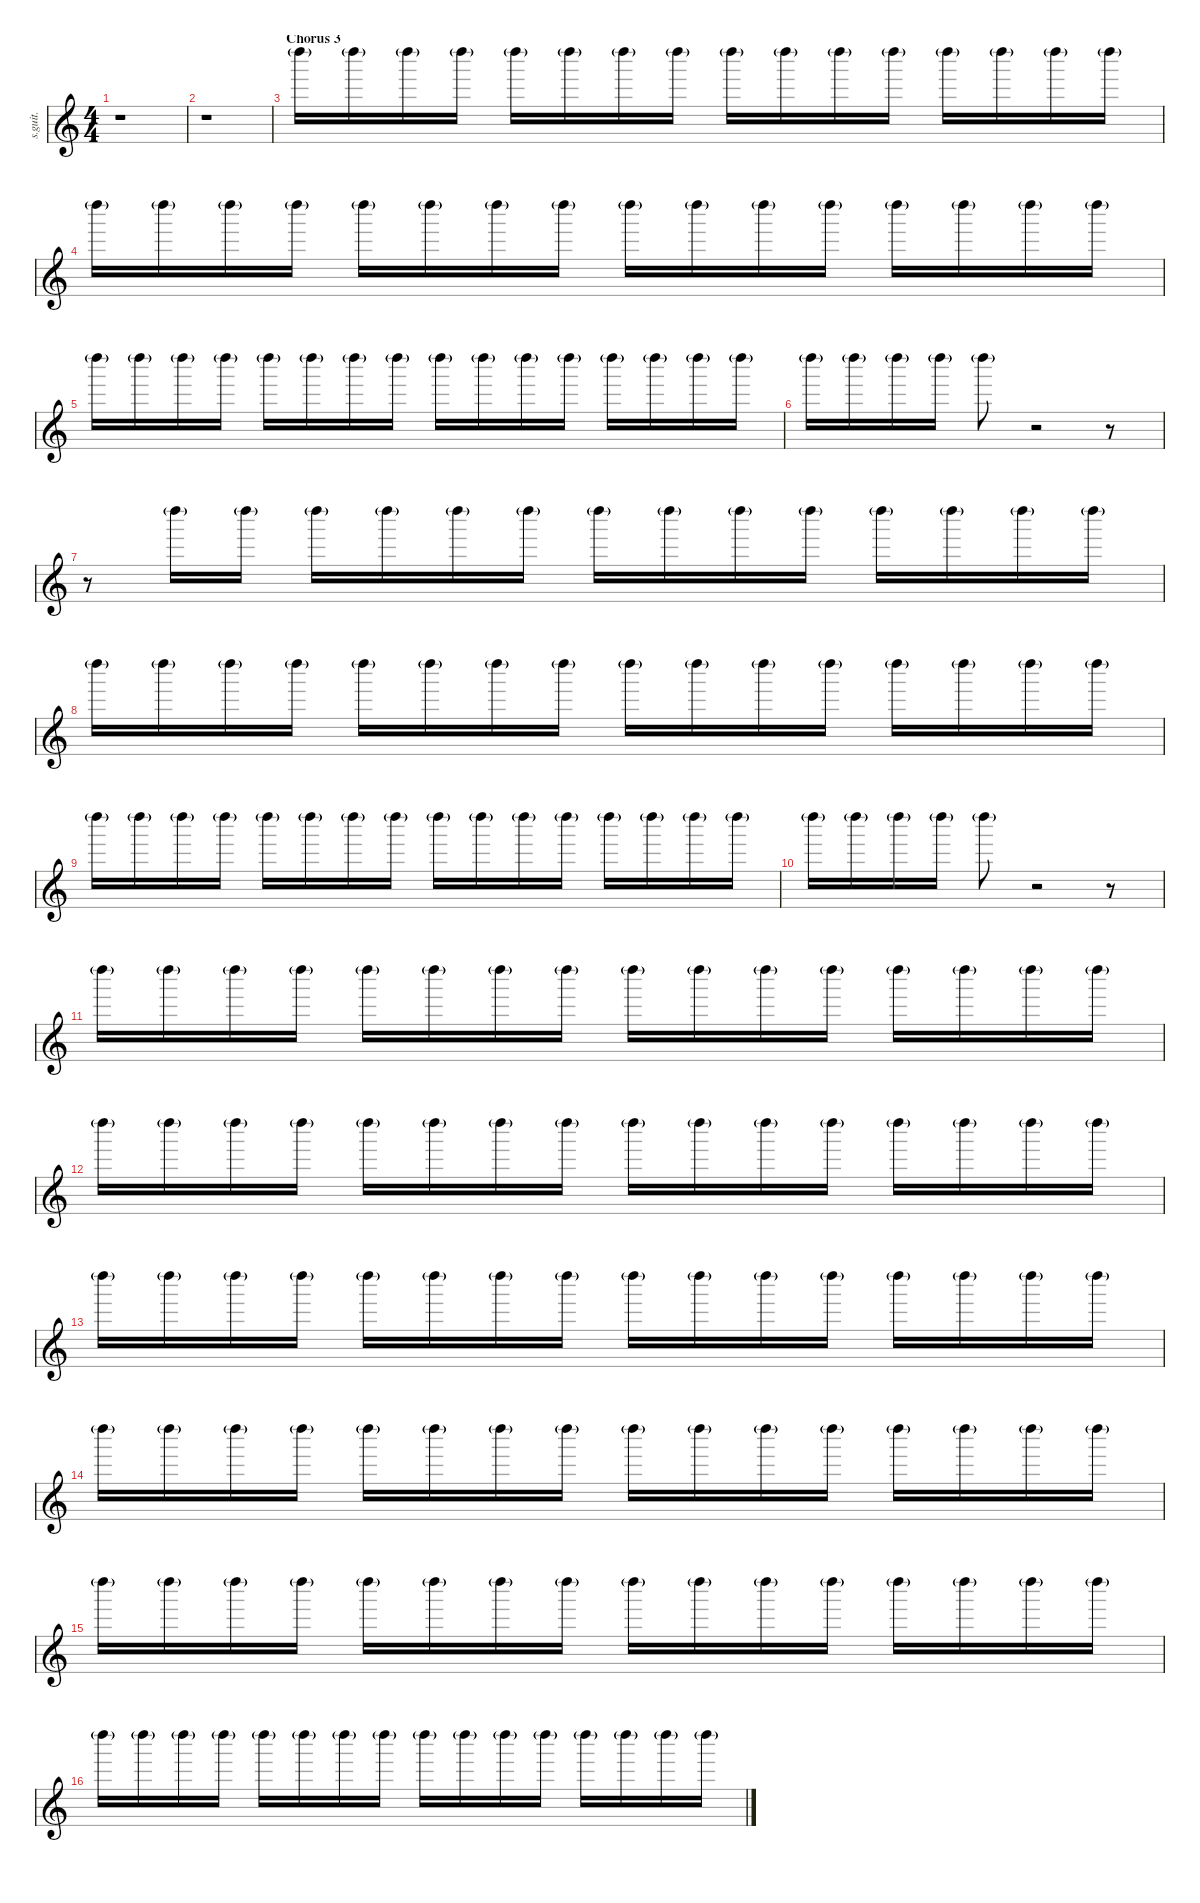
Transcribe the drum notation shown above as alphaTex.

\defaultSystemsLayout 4
\hideDynamics
\bracketExtendMode nobrackets
\track ("Shaker" "s.guit.") {instrument percussion}
\staff {score}
\articulation defaults
\ts (4 4)
\tempo (90 hide)
\clef g2
\ks c
r.1{dy p} |
\tempo (89 hide)
r.1 |
\section ("" "Chorus 3")
"Left Maraca (hit)"{g}.16{lyrics (0 "") lyrics (1 "") lyrics (2 "") lyrics (3 "") lyrics (4 "") dy mp} "Left Maraca (hit)"{g}.16{lyrics (0 "") lyrics (1 "") lyrics (2 "") lyrics (3 "") lyrics (4 "") dy p} "Left Maraca (hit)"{g}.16{lyrics (0 "") lyrics (1 "") lyrics (2 "") lyrics (3 "") lyrics (4 "")} "Left Maraca (hit)"{g}.16{lyrics (0 "") lyrics (1 "") lyrics (2 "") lyrics (3 "") lyrics (4 "")} "Left Maraca (hit)"{g}.16{lyrics (0 "") lyrics (1 "") lyrics (2 "") lyrics (3 "") lyrics (4 "") dy mp} "Left Maraca (hit)"{g}.16{lyrics (0 "") lyrics (1 "") lyrics (2 "") lyrics (3 "") lyrics (4 "") dy p} "Left Maraca (hit)"{g}.16{lyrics (0 "") lyrics (1 "") lyrics (2 "") lyrics (3 "") lyrics (4 "")} "Left Maraca (hit)"{g}.16{lyrics (0 "") lyrics (1 "") lyrics (2 "") lyrics (3 "") lyrics (4 "")} "Left Maraca (hit)"{g}.16{lyrics (0 "") lyrics (1 "") lyrics (2 "") lyrics (3 "") lyrics (4 "") dy mp} "Left Maraca (hit)"{g}.16{lyrics (0 "") lyrics (1 "") lyrics (2 "") lyrics (3 "") lyrics (4 "") dy p} "Left Maraca (hit)"{g}.16{lyrics (0 "") lyrics (1 "") lyrics (2 "") lyrics (3 "") lyrics (4 "")} "Left Maraca (hit)"{g}.16{lyrics (0 "") lyrics (1 "") lyrics (2 "") lyrics (3 "") lyrics (4 "")} "Left Maraca (hit)"{g}.16{lyrics (0 "") lyrics (1 "") lyrics (2 "") lyrics (3 "") lyrics (4 "") dy mp} "Left Maraca (hit)"{g}.16{lyrics (0 "") lyrics (1 "") lyrics (2 "") lyrics (3 "") lyrics (4 "") dy p} "Left Maraca (hit)"{g}.16{lyrics (0 "") lyrics (1 "") lyrics (2 "") lyrics (3 "") lyrics (4 "")} "Left Maraca (hit)"{g}.16{lyrics (0 "") lyrics (1 "") lyrics (2 "") lyrics (3 "") lyrics (4 "")} |
"Left Maraca (hit)"{g}.16{lyrics (0 "") lyrics (1 "") lyrics (2 "") lyrics (3 "") lyrics (4 "") dy mp} "Left Maraca (hit)"{g}.16{lyrics (0 "") lyrics (1 "") lyrics (2 "") lyrics (3 "") lyrics (4 "") dy p} "Left Maraca (hit)"{g}.16{lyrics (0 "") lyrics (1 "") lyrics (2 "") lyrics (3 "") lyrics (4 "")} "Left Maraca (hit)"{g}.16{lyrics (0 "") lyrics (1 "") lyrics (2 "") lyrics (3 "") lyrics (4 "")} "Left Maraca (hit)"{g}.16{lyrics (0 "") lyrics (1 "") lyrics (2 "") lyrics (3 "") lyrics (4 "") dy mp} "Left Maraca (hit)"{g}.16{lyrics (0 "") lyrics (1 "") lyrics (2 "") lyrics (3 "") lyrics (4 "") dy p} "Left Maraca (hit)"{g}.16{lyrics (0 "") lyrics (1 "") lyrics (2 "") lyrics (3 "") lyrics (4 "")} "Left Maraca (hit)"{g}.16{lyrics (0 "") lyrics (1 "") lyrics (2 "") lyrics (3 "") lyrics (4 "")} "Left Maraca (hit)"{g}.16{lyrics (0 "") lyrics (1 "") lyrics (2 "") lyrics (3 "") lyrics (4 "") dy mp} "Left Maraca (hit)"{g}.16{lyrics (0 "") lyrics (1 "") lyrics (2 "") lyrics (3 "") lyrics (4 "") dy p} "Left Maraca (hit)"{g}.16{lyrics (0 "") lyrics (1 "") lyrics (2 "") lyrics (3 "") lyrics (4 "")} "Left Maraca (hit)"{g}.16{lyrics (0 "") lyrics (1 "") lyrics (2 "") lyrics (3 "") lyrics (4 "")} "Left Maraca (hit)"{g}.16{lyrics (0 "") lyrics (1 "") lyrics (2 "") lyrics (3 "") lyrics (4 "") dy mp} "Left Maraca (hit)"{g}.16{lyrics (0 "") lyrics (1 "") lyrics (2 "") lyrics (3 "") lyrics (4 "") dy p} "Left Maraca (hit)"{g}.16{lyrics (0 "") lyrics (1 "") lyrics (2 "") lyrics (3 "") lyrics (4 "")} "Left Maraca (hit)"{g}.16{lyrics (0 "") lyrics (1 "") lyrics (2 "") lyrics (3 "") lyrics (4 "")} |
"Left Maraca (hit)"{g}.16{lyrics (0 "") lyrics (1 "") lyrics (2 "") lyrics (3 "") lyrics (4 "") dy mp} "Left Maraca (hit)"{g}.16{lyrics (0 "") lyrics (1 "") lyrics (2 "") lyrics (3 "") lyrics (4 "") dy p} "Left Maraca (hit)"{g}.16{lyrics (0 "") lyrics (1 "") lyrics (2 "") lyrics (3 "") lyrics (4 "")} "Left Maraca (hit)"{g}.16{lyrics (0 "") lyrics (1 "") lyrics (2 "") lyrics (3 "") lyrics (4 "")} "Left Maraca (hit)"{g}.16{lyrics (0 "") lyrics (1 "") lyrics (2 "") lyrics (3 "") lyrics (4 "") dy mp} "Left Maraca (hit)"{g}.16{lyrics (0 "") lyrics (1 "") lyrics (2 "") lyrics (3 "") lyrics (4 "") dy p} "Left Maraca (hit)"{g}.16{lyrics (0 "") lyrics (1 "") lyrics (2 "") lyrics (3 "") lyrics (4 "")} "Left Maraca (hit)"{g}.16{lyrics (0 "") lyrics (1 "") lyrics (2 "") lyrics (3 "") lyrics (4 "")} "Left Maraca (hit)"{g}.16{lyrics (0 "") lyrics (1 "") lyrics (2 "") lyrics (3 "") lyrics (4 "") dy mp} "Left Maraca (hit)"{g}.16{lyrics (0 "") lyrics (1 "") lyrics (2 "") lyrics (3 "") lyrics (4 "") dy p} "Left Maraca (hit)"{g}.16{lyrics (0 "") lyrics (1 "") lyrics (2 "") lyrics (3 "") lyrics (4 "")} "Left Maraca (hit)"{g}.16{lyrics (0 "") lyrics (1 "") lyrics (2 "") lyrics (3 "") lyrics (4 "")} "Left Maraca (hit)"{g}.16{lyrics (0 "") lyrics (1 "") lyrics (2 "") lyrics (3 "") lyrics (4 "") dy mp} "Left Maraca (hit)"{g}.16{lyrics (0 "") lyrics (1 "") lyrics (2 "") lyrics (3 "") lyrics (4 "") dy p} "Left Maraca (hit)"{g}.16{lyrics (0 "") lyrics (1 "") lyrics (2 "") lyrics (3 "") lyrics (4 "")} "Left Maraca (hit)"{g}.16{lyrics (0 "") lyrics (1 "") lyrics (2 "") lyrics (3 "") lyrics (4 "")} |
\tempo (90 hide)
"Left Maraca (hit)"{g}.16{lyrics (0 "") lyrics (1 "") lyrics (2 "") lyrics (3 "") lyrics (4 "") dy mp} "Left Maraca (hit)"{g}.16{lyrics (0 "") lyrics (1 "") lyrics (2 "") lyrics (3 "") lyrics (4 "") dy p} "Left Maraca (hit)"{g}.16{lyrics (0 "") lyrics (1 "") lyrics (2 "") lyrics (3 "") lyrics (4 "")} "Left Maraca (hit)"{g}.16{lyrics (0 "") lyrics (1 "") lyrics (2 "") lyrics (3 "") lyrics (4 "")} "Left Maraca (hit)"{g}.8{lyrics (0 "") lyrics (1 "") lyrics (2 "") lyrics (3 "") lyrics (4 "") dy mp} r.2 r.8 |
r.8 "Left Maraca (hit)"{g}.16{lyrics (0 "") lyrics (1 "") lyrics (2 "") lyrics (3 "") lyrics (4 "") dy p} "Left Maraca (hit)"{g}.16{lyrics (0 "") lyrics (1 "") lyrics (2 "") lyrics (3 "") lyrics (4 "") dy mp} "Left Maraca (hit)"{g}.16{lyrics (0 "") lyrics (1 "") lyrics (2 "") lyrics (3 "") lyrics (4 "") dy p} "Left Maraca (hit)"{g}.16{lyrics (0 "") lyrics (1 "") lyrics (2 "") lyrics (3 "") lyrics (4 "")} "Left Maraca (hit)"{g}.16{lyrics (0 "") lyrics (1 "") lyrics (2 "") lyrics (3 "") lyrics (4 "")} "Left Maraca (hit)"{g}.16{lyrics (0 "") lyrics (1 "") lyrics (2 "") lyrics (3 "") lyrics (4 "") dy mp} "Left Maraca (hit)"{g}.16{lyrics (0 "") lyrics (1 "") lyrics (2 "") lyrics (3 "") lyrics (4 "") dy p} "Left Maraca (hit)"{g}.16{lyrics (0 "") lyrics (1 "") lyrics (2 "") lyrics (3 "") lyrics (4 "")} "Left Maraca (hit)"{g}.16{lyrics (0 "") lyrics (1 "") lyrics (2 "") lyrics (3 "") lyrics (4 "")} "Left Maraca (hit)"{g}.16{lyrics (0 "") lyrics (1 "") lyrics (2 "") lyrics (3 "") lyrics (4 "") dy mp} "Left Maraca (hit)"{g}.16{lyrics (0 "") lyrics (1 "") lyrics (2 "") lyrics (3 "") lyrics (4 "") dy p} "Left Maraca (hit)"{g}.16{lyrics (0 "") lyrics (1 "") lyrics (2 "") lyrics (3 "") lyrics (4 "")} "Left Maraca (hit)"{g}.16{lyrics (0 "") lyrics (1 "") lyrics (2 "") lyrics (3 "") lyrics (4 "")} "Left Maraca (hit)"{g}.16{lyrics (0 "") lyrics (1 "") lyrics (2 "") lyrics (3 "") lyrics (4 "")} |
"Left Maraca (hit)"{g}.16{lyrics (0 "") lyrics (1 "") lyrics (2 "") lyrics (3 "") lyrics (4 "") dy mp} "Left Maraca (hit)"{g}.16{lyrics (0 "") lyrics (1 "") lyrics (2 "") lyrics (3 "") lyrics (4 "") dy p} "Left Maraca (hit)"{g}.16{lyrics (0 "") lyrics (1 "") lyrics (2 "") lyrics (3 "") lyrics (4 "")} "Left Maraca (hit)"{g}.16{lyrics (0 "") lyrics (1 "") lyrics (2 "") lyrics (3 "") lyrics (4 "")} "Left Maraca (hit)"{g}.16{lyrics (0 "") lyrics (1 "") lyrics (2 "") lyrics (3 "") lyrics (4 "") dy mp} "Left Maraca (hit)"{g}.16{lyrics (0 "") lyrics (1 "") lyrics (2 "") lyrics (3 "") lyrics (4 "") dy p} "Left Maraca (hit)"{g}.16{lyrics (0 "") lyrics (1 "") lyrics (2 "") lyrics (3 "") lyrics (4 "")} "Left Maraca (hit)"{g}.16{lyrics (0 "") lyrics (1 "") lyrics (2 "") lyrics (3 "") lyrics (4 "")} "Left Maraca (hit)"{g}.16{lyrics (0 "") lyrics (1 "") lyrics (2 "") lyrics (3 "") lyrics (4 "") dy mp} "Left Maraca (hit)"{g}.16{lyrics (0 "") lyrics (1 "") lyrics (2 "") lyrics (3 "") lyrics (4 "") dy p} "Left Maraca (hit)"{g}.16{lyrics (0 "") lyrics (1 "") lyrics (2 "") lyrics (3 "") lyrics (4 "")} "Left Maraca (hit)"{g}.16{lyrics (0 "") lyrics (1 "") lyrics (2 "") lyrics (3 "") lyrics (4 "")} "Left Maraca (hit)"{g}.16{lyrics (0 "") lyrics (1 "") lyrics (2 "") lyrics (3 "") lyrics (4 "") dy mp} "Left Maraca (hit)"{g}.16{lyrics (0 "") lyrics (1 "") lyrics (2 "") lyrics (3 "") lyrics (4 "") dy p} "Left Maraca (hit)"{g}.16{lyrics (0 "") lyrics (1 "") lyrics (2 "") lyrics (3 "") lyrics (4 "")} "Left Maraca (hit)"{g}.16{lyrics (0 "") lyrics (1 "") lyrics (2 "") lyrics (3 "") lyrics (4 "")} |
\tempo (89 hide)
"Left Maraca (hit)"{g}.16{lyrics (0 "") lyrics (1 "") lyrics (2 "") lyrics (3 "") lyrics (4 "") dy mp} "Left Maraca (hit)"{g}.16{lyrics (0 "") lyrics (1 "") lyrics (2 "") lyrics (3 "") lyrics (4 "") dy p} "Left Maraca (hit)"{g}.16{lyrics (0 "") lyrics (1 "") lyrics (2 "") lyrics (3 "") lyrics (4 "")} "Left Maraca (hit)"{g}.16{lyrics (0 "") lyrics (1 "") lyrics (2 "") lyrics (3 "") lyrics (4 "")} "Left Maraca (hit)"{g}.16{lyrics (0 "") lyrics (1 "") lyrics (2 "") lyrics (3 "") lyrics (4 "") dy mp} "Left Maraca (hit)"{g}.16{lyrics (0 "") lyrics (1 "") lyrics (2 "") lyrics (3 "") lyrics (4 "") dy p} "Left Maraca (hit)"{g}.16{lyrics (0 "") lyrics (1 "") lyrics (2 "") lyrics (3 "") lyrics (4 "")} "Left Maraca (hit)"{g}.16{lyrics (0 "") lyrics (1 "") lyrics (2 "") lyrics (3 "") lyrics (4 "")} "Left Maraca (hit)"{g}.16{lyrics (0 "") lyrics (1 "") lyrics (2 "") lyrics (3 "") lyrics (4 "") dy mp} "Left Maraca (hit)"{g}.16{lyrics (0 "") lyrics (1 "") lyrics (2 "") lyrics (3 "") lyrics (4 "") dy p} "Left Maraca (hit)"{g}.16{lyrics (0 "") lyrics (1 "") lyrics (2 "") lyrics (3 "") lyrics (4 "")} "Left Maraca (hit)"{g}.16{lyrics (0 "") lyrics (1 "") lyrics (2 "") lyrics (3 "") lyrics (4 "")} "Left Maraca (hit)"{g}.16{lyrics (0 "") lyrics (1 "") lyrics (2 "") lyrics (3 "") lyrics (4 "") dy mp} "Left Maraca (hit)"{g}.16{lyrics (0 "") lyrics (1 "") lyrics (2 "") lyrics (3 "") lyrics (4 "") dy p} "Left Maraca (hit)"{g}.16{lyrics (0 "") lyrics (1 "") lyrics (2 "") lyrics (3 "") lyrics (4 "")} "Left Maraca (hit)"{g}.16{lyrics (0 "") lyrics (1 "") lyrics (2 "") lyrics (3 "") lyrics (4 "")} |
\tempo (87 hide)
"Left Maraca (hit)"{g}.16{lyrics (0 "") lyrics (1 "") lyrics (2 "") lyrics (3 "") lyrics (4 "") dy mp} "Left Maraca (hit)"{g}.16{lyrics (0 "") lyrics (1 "") lyrics (2 "") lyrics (3 "") lyrics (4 "") dy p} "Left Maraca (hit)"{g}.16{lyrics (0 "") lyrics (1 "") lyrics (2 "") lyrics (3 "") lyrics (4 "")} "Left Maraca (hit)"{g}.16{lyrics (0 "") lyrics (1 "") lyrics (2 "") lyrics (3 "") lyrics (4 "")} "Left Maraca (hit)"{g}.8{lyrics (0 "") lyrics (1 "") lyrics (2 "") lyrics (3 "") lyrics (4 "") dy mp} r.2 r.8 |
"Left Maraca (hit)"{g}.16{lyrics (0 "") lyrics (1 "") lyrics (2 "") lyrics (3 "") lyrics (4 "")} "Left Maraca (hit)"{g}.16{lyrics (0 "") lyrics (1 "") lyrics (2 "") lyrics (3 "") lyrics (4 "") dy p} "Left Maraca (hit)"{g}.16{lyrics (0 "") lyrics (1 "") lyrics (2 "") lyrics (3 "") lyrics (4 "")} "Left Maraca (hit)"{g}.16{lyrics (0 "") lyrics (1 "") lyrics (2 "") lyrics (3 "") lyrics (4 "")} "Left Maraca (hit)"{g}.16{lyrics (0 "") lyrics (1 "") lyrics (2 "") lyrics (3 "") lyrics (4 "") dy mp} "Left Maraca (hit)"{g}.16{lyrics (0 "") lyrics (1 "") lyrics (2 "") lyrics (3 "") lyrics (4 "") dy p} "Left Maraca (hit)"{g}.16{lyrics (0 "") lyrics (1 "") lyrics (2 "") lyrics (3 "") lyrics (4 "")} "Left Maraca (hit)"{g}.16{lyrics (0 "") lyrics (1 "") lyrics (2 "") lyrics (3 "") lyrics (4 "")} "Left Maraca (hit)"{g}.16{lyrics (0 "") lyrics (1 "") lyrics (2 "") lyrics (3 "") lyrics (4 "") dy mp} "Left Maraca (hit)"{g}.16{lyrics (0 "") lyrics (1 "") lyrics (2 "") lyrics (3 "") lyrics (4 "") dy p} "Left Maraca (hit)"{g}.16{lyrics (0 "") lyrics (1 "") lyrics (2 "") lyrics (3 "") lyrics (4 "")} "Left Maraca (hit)"{g}.16{lyrics (0 "") lyrics (1 "") lyrics (2 "") lyrics (3 "") lyrics (4 "")} "Left Maraca (hit)"{g}.16{lyrics (0 "") lyrics (1 "") lyrics (2 "") lyrics (3 "") lyrics (4 "") dy mp} "Left Maraca (hit)"{g}.16{lyrics (0 "") lyrics (1 "") lyrics (2 "") lyrics (3 "") lyrics (4 "") dy p} "Left Maraca (hit)"{g}.16{lyrics (0 "") lyrics (1 "") lyrics (2 "") lyrics (3 "") lyrics (4 "")} "Left Maraca (hit)"{g}.16{lyrics (0 "") lyrics (1 "") lyrics (2 "") lyrics (3 "") lyrics (4 "")} |
\tempo (89 hide)
"Left Maraca (hit)"{g}.16{lyrics (0 "") lyrics (1 "") lyrics (2 "") lyrics (3 "") lyrics (4 "") dy mp} "Left Maraca (hit)"{g}.16{lyrics (0 "") lyrics (1 "") lyrics (2 "") lyrics (3 "") lyrics (4 "") dy p} "Left Maraca (hit)"{g}.16{lyrics (0 "") lyrics (1 "") lyrics (2 "") lyrics (3 "") lyrics (4 "")} "Left Maraca (hit)"{g}.16{lyrics (0 "") lyrics (1 "") lyrics (2 "") lyrics (3 "") lyrics (4 "")} "Left Maraca (hit)"{g}.16{lyrics (0 "") lyrics (1 "") lyrics (2 "") lyrics (3 "") lyrics (4 "") dy mp} "Left Maraca (hit)"{g}.16{lyrics (0 "") lyrics (1 "") lyrics (2 "") lyrics (3 "") lyrics (4 "") dy p} "Left Maraca (hit)"{g}.16{lyrics (0 "") lyrics (1 "") lyrics (2 "") lyrics (3 "") lyrics (4 "")} "Left Maraca (hit)"{g}.16{lyrics (0 "") lyrics (1 "") lyrics (2 "") lyrics (3 "") lyrics (4 "")} "Left Maraca (hit)"{g}.16{lyrics (0 "") lyrics (1 "") lyrics (2 "") lyrics (3 "") lyrics (4 "") dy mp} "Left Maraca (hit)"{g}.16{lyrics (0 "") lyrics (1 "") lyrics (2 "") lyrics (3 "") lyrics (4 "") dy p} "Left Maraca (hit)"{g}.16{lyrics (0 "") lyrics (1 "") lyrics (2 "") lyrics (3 "") lyrics (4 "")} "Left Maraca (hit)"{g}.16{lyrics (0 "") lyrics (1 "") lyrics (2 "") lyrics (3 "") lyrics (4 "")} "Left Maraca (hit)"{g}.16{lyrics (0 "") lyrics (1 "") lyrics (2 "") lyrics (3 "") lyrics (4 "") dy mp} "Left Maraca (hit)"{g}.16{lyrics (0 "") lyrics (1 "") lyrics (2 "") lyrics (3 "") lyrics (4 "") dy p} "Left Maraca (hit)"{g}.16{lyrics (0 "") lyrics (1 "") lyrics (2 "") lyrics (3 "") lyrics (4 "")} "Left Maraca (hit)"{g}.16{lyrics (0 "") lyrics (1 "") lyrics (2 "") lyrics (3 "") lyrics (4 "")} |
"Left Maraca (hit)"{g}.16{lyrics (0 "") lyrics (1 "") lyrics (2 "") lyrics (3 "") lyrics (4 "") dy mp} "Left Maraca (hit)"{g}.16{lyrics (0 "") lyrics (1 "") lyrics (2 "") lyrics (3 "") lyrics (4 "") dy p} "Left Maraca (hit)"{g}.16{lyrics (0 "") lyrics (1 "") lyrics (2 "") lyrics (3 "") lyrics (4 "")} "Left Maraca (hit)"{g}.16{lyrics (0 "") lyrics (1 "") lyrics (2 "") lyrics (3 "") lyrics (4 "")} "Left Maraca (hit)"{g}.16{lyrics (0 "") lyrics (1 "") lyrics (2 "") lyrics (3 "") lyrics (4 "") dy mp} "Left Maraca (hit)"{g}.16{lyrics (0 "") lyrics (1 "") lyrics (2 "") lyrics (3 "") lyrics (4 "") dy p} "Left Maraca (hit)"{g}.16{lyrics (0 "") lyrics (1 "") lyrics (2 "") lyrics (3 "") lyrics (4 "")} "Left Maraca (hit)"{g}.16{lyrics (0 "") lyrics (1 "") lyrics (2 "") lyrics (3 "") lyrics (4 "")} "Left Maraca (hit)"{g}.16{lyrics (0 "") lyrics (1 "") lyrics (2 "") lyrics (3 "") lyrics (4 "") dy mp} "Left Maraca (hit)"{g}.16{lyrics (0 "") lyrics (1 "") lyrics (2 "") lyrics (3 "") lyrics (4 "") dy p} "Left Maraca (hit)"{g}.16{lyrics (0 "") lyrics (1 "") lyrics (2 "") lyrics (3 "") lyrics (4 "")} "Left Maraca (hit)"{g}.16{lyrics (0 "") lyrics (1 "") lyrics (2 "") lyrics (3 "") lyrics (4 "")} "Left Maraca (hit)"{g}.16{lyrics (0 "") lyrics (1 "") lyrics (2 "") lyrics (3 "") lyrics (4 "") dy mp} "Left Maraca (hit)"{g}.16{lyrics (0 "") lyrics (1 "") lyrics (2 "") lyrics (3 "") lyrics (4 "") dy p} "Left Maraca (hit)"{g}.16{lyrics (0 "") lyrics (1 "") lyrics (2 "") lyrics (3 "") lyrics (4 "")} "Left Maraca (hit)"{g}.16{lyrics (0 "") lyrics (1 "") lyrics (2 "") lyrics (3 "") lyrics (4 "")} |
\tempo (90 hide)
"Left Maraca (hit)"{g}.16{lyrics (0 "") lyrics (1 "") lyrics (2 "") lyrics (3 "") lyrics (4 "") dy mp} "Left Maraca (hit)"{g}.16{lyrics (0 "") lyrics (1 "") lyrics (2 "") lyrics (3 "") lyrics (4 "") dy p} "Left Maraca (hit)"{g}.16{lyrics (0 "") lyrics (1 "") lyrics (2 "") lyrics (3 "") lyrics (4 "")} "Left Maraca (hit)"{g}.16{lyrics (0 "") lyrics (1 "") lyrics (2 "") lyrics (3 "") lyrics (4 "")} "Left Maraca (hit)"{g}.16{lyrics (0 "") lyrics (1 "") lyrics (2 "") lyrics (3 "") lyrics (4 "") dy mp} "Left Maraca (hit)"{g}.16{lyrics (0 "") lyrics (1 "") lyrics (2 "") lyrics (3 "") lyrics (4 "") dy p} "Left Maraca (hit)"{g}.16{lyrics (0 "") lyrics (1 "") lyrics (2 "") lyrics (3 "") lyrics (4 "")} "Left Maraca (hit)"{g}.16{lyrics (0 "") lyrics (1 "") lyrics (2 "") lyrics (3 "") lyrics (4 "")} "Left Maraca (hit)"{g}.16{lyrics (0 "") lyrics (1 "") lyrics (2 "") lyrics (3 "") lyrics (4 "") dy mp} "Left Maraca (hit)"{g}.16{lyrics (0 "") lyrics (1 "") lyrics (2 "") lyrics (3 "") lyrics (4 "") dy p} "Left Maraca (hit)"{g}.16{lyrics (0 "") lyrics (1 "") lyrics (2 "") lyrics (3 "") lyrics (4 "")} "Left Maraca (hit)"{g}.16{lyrics (0 "") lyrics (1 "") lyrics (2 "") lyrics (3 "") lyrics (4 "")} "Left Maraca (hit)"{g}.16{lyrics (0 "") lyrics (1 "") lyrics (2 "") lyrics (3 "") lyrics (4 "") dy mp} "Left Maraca (hit)"{g}.16{lyrics (0 "") lyrics (1 "") lyrics (2 "") lyrics (3 "") lyrics (4 "") dy p} "Left Maraca (hit)"{g}.16{lyrics (0 "") lyrics (1 "") lyrics (2 "") lyrics (3 "") lyrics (4 "")} "Left Maraca (hit)"{g}.16{lyrics (0 "") lyrics (1 "") lyrics (2 "") lyrics (3 "") lyrics (4 "")} |
\tempo (89 hide)
"Left Maraca (hit)"{g}.16{lyrics (0 "") lyrics (1 "") lyrics (2 "") lyrics (3 "") lyrics (4 "") dy mp} "Left Maraca (hit)"{g}.16{lyrics (0 "") lyrics (1 "") lyrics (2 "") lyrics (3 "") lyrics (4 "") dy p} "Left Maraca (hit)"{g}.16{lyrics (0 "") lyrics (1 "") lyrics (2 "") lyrics (3 "") lyrics (4 "")} "Left Maraca (hit)"{g}.16{lyrics (0 "") lyrics (1 "") lyrics (2 "") lyrics (3 "") lyrics (4 "")} "Left Maraca (hit)"{g}.16{lyrics (0 "") lyrics (1 "") lyrics (2 "") lyrics (3 "") lyrics (4 "") dy mp} "Left Maraca (hit)"{g}.16{lyrics (0 "") lyrics (1 "") lyrics (2 "") lyrics (3 "") lyrics (4 "") dy p} "Left Maraca (hit)"{g}.16{lyrics (0 "") lyrics (1 "") lyrics (2 "") lyrics (3 "") lyrics (4 "")} "Left Maraca (hit)"{g}.16{lyrics (0 "") lyrics (1 "") lyrics (2 "") lyrics (3 "") lyrics (4 "")} "Left Maraca (hit)"{g}.16{lyrics (0 "") lyrics (1 "") lyrics (2 "") lyrics (3 "") lyrics (4 "") dy mp} "Left Maraca (hit)"{g}.16{lyrics (0 "") lyrics (1 "") lyrics (2 "") lyrics (3 "") lyrics (4 "") dy p} "Left Maraca (hit)"{g}.16{lyrics (0 "") lyrics (1 "") lyrics (2 "") lyrics (3 "") lyrics (4 "")} "Left Maraca (hit)"{g}.16{lyrics (0 "") lyrics (1 "") lyrics (2 "") lyrics (3 "") lyrics (4 "")} "Left Maraca (hit)"{g}.16{lyrics (0 "") lyrics (1 "") lyrics (2 "") lyrics (3 "") lyrics (4 "") dy mp} "Left Maraca (hit)"{g}.16{lyrics (0 "") lyrics (1 "") lyrics (2 "") lyrics (3 "") lyrics (4 "") dy p} "Left Maraca (hit)"{g}.16{lyrics (0 "") lyrics (1 "") lyrics (2 "") lyrics (3 "") lyrics (4 "")} "Left Maraca (hit)"{g}.16{lyrics (0 "") lyrics (1 "") lyrics (2 "") lyrics (3 "") lyrics (4 "")} |
\tempo (90 hide)
"Left Maraca (hit)"{g}.16{lyrics (0 "") lyrics (1 "") lyrics (2 "") lyrics (3 "") lyrics (4 "") dy mp} "Left Maraca (hit)"{g}.16{lyrics (0 "") lyrics (1 "") lyrics (2 "") lyrics (3 "") lyrics (4 "") dy p} "Left Maraca (hit)"{g}.16{lyrics (0 "") lyrics (1 "") lyrics (2 "") lyrics (3 "") lyrics (4 "")} "Left Maraca (hit)"{g}.16{lyrics (0 "") lyrics (1 "") lyrics (2 "") lyrics (3 "") lyrics (4 "")} "Left Maraca (hit)"{g}.16{lyrics (0 "") lyrics (1 "") lyrics (2 "") lyrics (3 "") lyrics (4 "") dy mp} "Left Maraca (hit)"{g}.16{lyrics (0 "") lyrics (1 "") lyrics (2 "") lyrics (3 "") lyrics (4 "") dy p} "Left Maraca (hit)"{g}.16{lyrics (0 "") lyrics (1 "") lyrics (2 "") lyrics (3 "") lyrics (4 "")} "Left Maraca (hit)"{g}.16{lyrics (0 "") lyrics (1 "") lyrics (2 "") lyrics (3 "") lyrics (4 "")} "Left Maraca (hit)"{g}.16{lyrics (0 "") lyrics (1 "") lyrics (2 "") lyrics (3 "") lyrics (4 "") dy mp} "Left Maraca (hit)"{g}.16{lyrics (0 "") lyrics (1 "") lyrics (2 "") lyrics (3 "") lyrics (4 "") dy p} "Left Maraca (hit)"{g}.16{lyrics (0 "") lyrics (1 "") lyrics (2 "") lyrics (3 "") lyrics (4 "")} "Left Maraca (hit)"{g}.16{lyrics (0 "") lyrics (1 "") lyrics (2 "") lyrics (3 "") lyrics (4 "")} "Left Maraca (hit)"{g}.16{lyrics (0 "") lyrics (1 "") lyrics (2 "") lyrics (3 "") lyrics (4 "") dy mp} "Left Maraca (hit)"{g}.16{lyrics (0 "") lyrics (1 "") lyrics (2 "") lyrics (3 "") lyrics (4 "") dy p} "Left Maraca (hit)"{g}.16{lyrics (0 "") lyrics (1 "") lyrics (2 "") lyrics (3 "") lyrics (4 "")} "Left Maraca (hit)"{g}.16{lyrics (0 "") lyrics (1 "") lyrics (2 "") lyrics (3 "") lyrics (4 "")}
